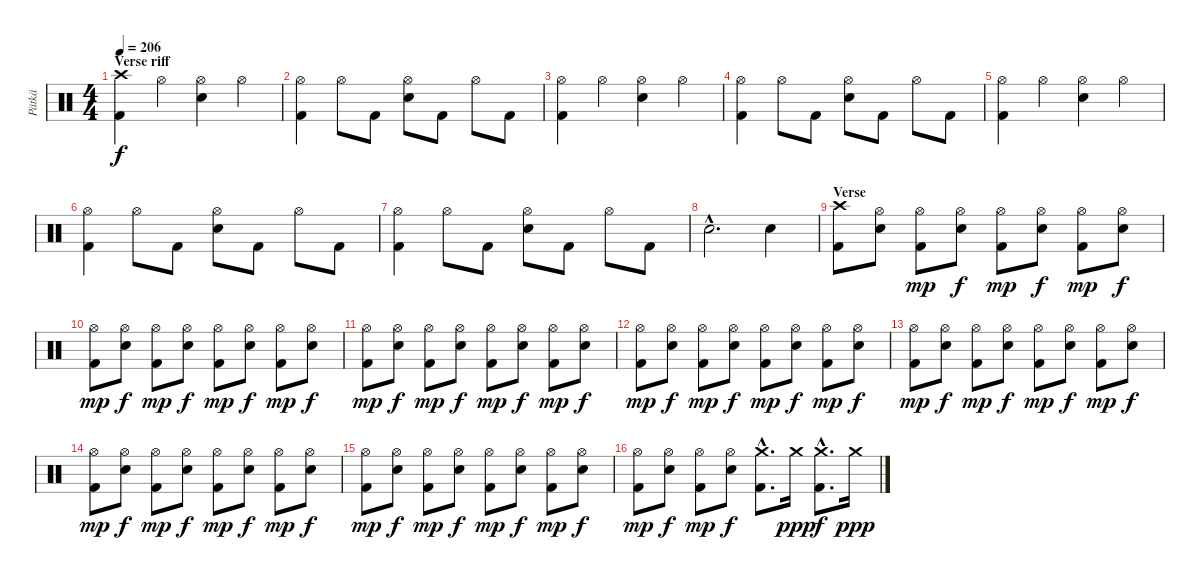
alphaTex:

\track ("Pätkä" "Pätkä") {instrument percussion}
\staff {score}
\articulation defaults
\ts (4 4)
\section ("" "Verse riff")
\tempo 206
\clef neutral
\ks c
("Crash high (hit)" "Kick (hit) 2").4{dy f} "Hi-Hat (open)".4 ("Hi-Hat (open)" "Electric Snare (hit)").4 "Hi-Hat (open)".4 |
("Hi-Hat (open)" "Kick (hit) 2").4 "Hi-Hat (open)".8 "Kick (hit) 2".8 ("Hi-Hat (open)" "Electric Snare (hit)").8 "Kick (hit) 2".8 "Hi-Hat (open)".8 "Kick (hit) 2".8 |
("Hi-Hat (open)" "Kick (hit) 2").4 "Hi-Hat (open)".4 ("Hi-Hat (open)" "Electric Snare (hit)").4 "Hi-Hat (open)".4 |
("Hi-Hat (open)" "Kick (hit) 2").4 "Hi-Hat (open)".8 "Kick (hit) 2".8 ("Hi-Hat (open)" "Electric Snare (hit)").8 "Kick (hit) 2".8 "Hi-Hat (open)".8 "Kick (hit) 2".8 |
("Hi-Hat (open)" "Kick (hit) 2").4 "Hi-Hat (open)".4 ("Hi-Hat (open)" "Electric Snare (hit)").4 "Hi-Hat (open)".4 |
("Hi-Hat (open)" "Kick (hit) 2").4 "Hi-Hat (open)".8 "Kick (hit) 2".8 ("Hi-Hat (open)" "Electric Snare (hit)").8 "Kick (hit) 2".8 "Hi-Hat (open)".8 "Kick (hit) 2".8 |
("Hi-Hat (open)" "Kick (hit) 2").4 "Hi-Hat (open)".8 "Kick (hit) 2".8 ("Hi-Hat (open)" "Electric Snare (hit)").8 "Kick (hit) 2".8 "Hi-Hat (open)".8 "Kick (hit) 2".8 |
"Electric Snare (hit)"{hac}.2{d} "Electric Snare (hit)".4 |
\section ("" "Verse")
("Crash high (hit)" "Kick (hit) 2").8 ("Hi-Hat (open)" "Electric Snare (hit)").8 ("Hi-Hat (open)" "Kick (hit) 2").8{dy mp} ("Hi-Hat (open)" "Electric Snare (hit)").8{dy f} ("Hi-Hat (open)" "Kick (hit) 2").8{dy mp} ("Hi-Hat (open)" "Electric Snare (hit)").8{dy f} ("Hi-Hat (open)" "Kick (hit) 2").8{dy mp} ("Hi-Hat (open)" "Electric Snare (hit)").8{dy f} |
("Hi-Hat (open)" "Kick (hit) 2").8{dy mp} ("Hi-Hat (open)" "Electric Snare (hit)").8{dy f} ("Hi-Hat (open)" "Kick (hit) 2").8{dy mp} ("Hi-Hat (open)" "Electric Snare (hit)").8{dy f} ("Hi-Hat (open)" "Kick (hit) 2").8{dy mp} ("Hi-Hat (open)" "Electric Snare (hit)").8{dy f} ("Hi-Hat (open)" "Kick (hit) 2").8{dy mp} ("Hi-Hat (open)" "Electric Snare (hit)").8{dy f} |
("Hi-Hat (open)" "Kick (hit) 2").8{dy mp} ("Hi-Hat (open)" "Electric Snare (hit)").8{dy f} ("Hi-Hat (open)" "Kick (hit) 2").8{dy mp} ("Hi-Hat (open)" "Electric Snare (hit)").8{dy f} ("Hi-Hat (open)" "Kick (hit) 2").8{dy mp} ("Hi-Hat (open)" "Electric Snare (hit)").8{dy f} ("Hi-Hat (open)" "Kick (hit) 2").8{dy mp} ("Hi-Hat (open)" "Electric Snare (hit)").8{dy f} |
("Hi-Hat (open)" "Kick (hit) 2").8{dy mp} ("Hi-Hat (open)" "Electric Snare (hit)").8{dy f} ("Hi-Hat (open)" "Kick (hit) 2").8{dy mp} ("Hi-Hat (open)" "Electric Snare (hit)").8{dy f} ("Hi-Hat (open)" "Kick (hit) 2").8{dy mp} ("Hi-Hat (open)" "Electric Snare (hit)").8{dy f} ("Hi-Hat (open)" "Kick (hit) 2").8{dy mp} ("Hi-Hat (open)" "Electric Snare (hit)").8{dy f} |
("Hi-Hat (open)" "Kick (hit) 2").8{dy mp} ("Hi-Hat (open)" "Electric Snare (hit)").8{dy f} ("Hi-Hat (open)" "Kick (hit) 2").8{dy mp} ("Hi-Hat (open)" "Electric Snare (hit)").8{dy f} ("Hi-Hat (open)" "Kick (hit) 2").8{dy mp} ("Hi-Hat (open)" "Electric Snare (hit)").8{dy f} ("Hi-Hat (open)" "Kick (hit) 2").8{dy mp} ("Hi-Hat (open)" "Electric Snare (hit)").8{dy f} |
("Hi-Hat (open)" "Kick (hit) 2").8{dy mp} ("Hi-Hat (open)" "Electric Snare (hit)").8{dy f} ("Hi-Hat (open)" "Kick (hit) 2").8{dy mp} ("Hi-Hat (open)" "Electric Snare (hit)").8{dy f} ("Hi-Hat (open)" "Kick (hit) 2").8{dy mp} ("Hi-Hat (open)" "Electric Snare (hit)").8{dy f} ("Hi-Hat (open)" "Kick (hit) 2").8{dy mp} ("Hi-Hat (open)" "Electric Snare (hit)").8{dy f} |
("Hi-Hat (open)" "Kick (hit) 2").8{dy mp} ("Hi-Hat (open)" "Electric Snare (hit)").8{dy f} ("Hi-Hat (open)" "Kick (hit) 2").8{dy mp} ("Hi-Hat (open)" "Electric Snare (hit)").8{dy f} ("Hi-Hat (open)" "Kick (hit) 2").8{dy mp} ("Hi-Hat (open)" "Electric Snare (hit)").8{dy f} ("Hi-Hat (open)" "Kick (hit) 2").8{dy mp} ("Hi-Hat (open)" "Electric Snare (hit)").8{dy f} |
("Hi-Hat (open)" "Kick (hit) 2").8{dy mp} ("Hi-Hat (open)" "Electric Snare (hit)").8{dy f} ("Hi-Hat (open)" "Kick (hit) 2").8{dy mp} ("Hi-Hat (open)" "Electric Snare (hit)").8{dy f} ("Crash medium (hit)"{hac} "Kick (hit) 2"{hac}).8{d} "Crash medium (hit)".16{dy ppp} ("Crash medium (hit)"{hac} "Kick (hit) 2"{hac}).8{d dy f} "Crash medium (hit)".16{dy ppp}
